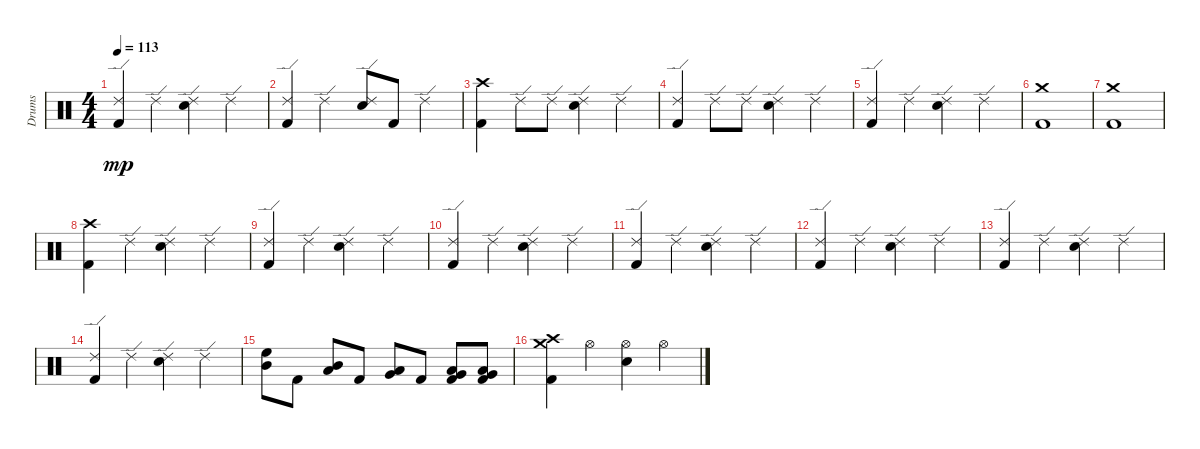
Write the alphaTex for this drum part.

\track ("Drums" "Drums") {instrument percussion}
\staff {score}
\articulation defaults
\ts (4 4)
\tempo 113
\clef neutral
\ks c
("Kick (hit) 2" "Ride (edge) 2").4{dy mp} "Ride (edge) 2".4 ("Snare (hit) 2" "Ride (edge) 2").4 "Ride (edge) 2".4 |
("Kick (hit) 2" "Ride (edge) 2").4 "Ride (edge) 2".4 ("Snare (hit) 2" "Ride (edge) 2").8 "Kick (hit) 2".8 "Ride (edge) 2".4 |
("Kick (hit) 2" "Crash high (hit)").4 "Ride (edge) 2".8 "Ride (edge) 2".8 ("Snare (hit) 2" "Ride (edge) 2").4 "Ride (edge) 2".4 |
("Kick (hit) 2" "Ride (edge) 2").4 "Ride (edge) 2".8 "Ride (edge) 2".8 ("Snare (hit) 2" "Ride (edge) 2").4 "Ride (edge) 2".4 |
("Kick (hit) 2" "Ride (edge) 2").4 "Ride (edge) 2".4 ("Snare (hit) 2" "Ride (edge) 2").4 "Ride (edge) 2".4 |
("Kick (hit) 2" "Crash medium (hit)").1 |
("Kick (hit) 2" "Crash medium (hit)").1 |
("Kick (hit) 2" "Crash high (hit)").4 "Ride (edge) 2".4 ("Snare (hit) 2" "Ride (edge) 2").4 "Ride (edge) 2".4 |
("Kick (hit) 2" "Ride (edge) 2").4 "Ride (edge) 2".4 ("Snare (hit) 2" "Ride (edge) 2").4 "Ride (edge) 2".4 |
("Kick (hit) 2" "Ride (edge) 2").4 "Ride (edge) 2".4 ("Snare (hit) 2" "Ride (edge) 2").4 "Ride (edge) 2".4 |
("Kick (hit) 2" "Ride (edge) 2").4 "Ride (edge) 2".4 ("Snare (hit) 2" "Ride (edge) 2").4 "Ride (edge) 2".4 |
("Kick (hit) 2" "Ride (edge) 2").4 "Ride (edge) 2".4 ("Snare (hit) 2" "Ride (edge) 2").4 "Ride (edge) 2".4 |
("Kick (hit) 2" "Ride (edge) 2").4 "Ride (edge) 2".4 ("Snare (hit) 2" "Ride (edge) 2").4 "Ride (edge) 2".4 |
("Kick (hit) 2" "Ride (edge) 2").4 "Ride (edge) 2".4 ("Snare (hit) 2" "Ride (edge) 2").4 "Ride (edge) 2".4 |
("Mid Tom (hit)" "High Floor Tom (hit)").8 "Kick (hit) 2".8 ("Low Tom (hit)" "Mid Tom (hit)").8 "Kick (hit) 2".8 ("Very Low Tom (hit)" "Low Tom (hit)").8 "Kick (hit) 2".8 ("Kick (hit) 2" "Low Floor Tom (hit)" "Very Low Tom (hit)").8 ("Kick (hit) 2" "Low Floor Tom (hit)" "Very Low Tom (hit)").8 |
("Kick (hit) 2" "Crash high (hit)" "Crash medium (hit)").4 "Hi-Hat (open)".4 ("Snare (hit) 2" "Hi-Hat (open)").4 "Hi-Hat (open)".4
